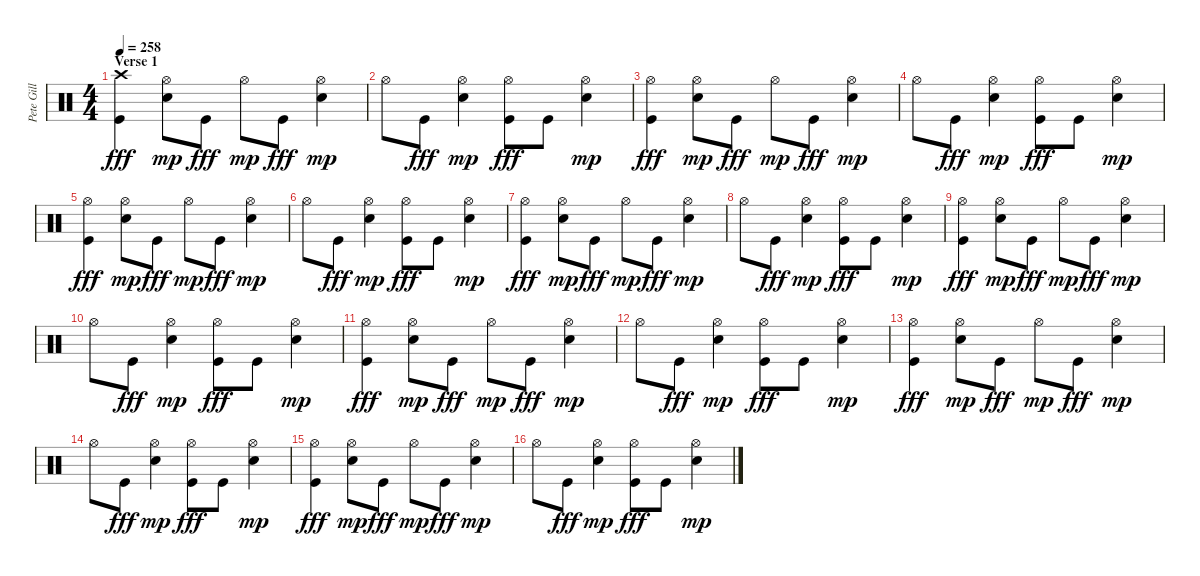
\track ("Pete Gill" "Pete Gill") {instrument percussion}
\staff {score}
\articulation defaults
\ts (4 4)
\section ("" "Verse 1")
\tempo 258
\clef neutral
\ks c
("Crash high (hit)" "Kick (hit)").4{dy fff} ("Hi-Hat (open)" "Electric Snare (hit)").8{dy mp} "Kick (hit)".8{dy fff} "Hi-Hat (open)".8{dy mp} "Kick (hit)".8{dy fff} ("Hi-Hat (open)" "Electric Snare (hit)").4{dy mp} |
"Hi-Hat (open)".8 "Kick (hit)".8{dy fff} ("Hi-Hat (open)" "Electric Snare (hit)").4{dy mp} ("Hi-Hat (open)" "Kick (hit)").8{dy fff} "Kick (hit)".8 ("Hi-Hat (open)" "Electric Snare (hit)").4{dy mp} |
("Hi-Hat (open)" "Kick (hit)").4{dy fff} ("Hi-Hat (open)" "Electric Snare (hit)").8{dy mp} "Kick (hit)".8{dy fff} "Hi-Hat (open)".8{dy mp} "Kick (hit)".8{dy fff} ("Hi-Hat (open)" "Electric Snare (hit)").4{dy mp} |
"Hi-Hat (open)".8 "Kick (hit)".8{dy fff} ("Hi-Hat (open)" "Electric Snare (hit)").4{dy mp} ("Hi-Hat (open)" "Kick (hit)").8{dy fff} "Kick (hit)".8 ("Hi-Hat (open)" "Electric Snare (hit)").4{dy mp} |
("Hi-Hat (open)" "Kick (hit)").4{dy fff} ("Hi-Hat (open)" "Electric Snare (hit)").8{dy mp} "Kick (hit)".8{dy fff} "Hi-Hat (open)".8{dy mp} "Kick (hit)".8{dy fff} ("Hi-Hat (open)" "Electric Snare (hit)").4{dy mp} |
"Hi-Hat (open)".8 "Kick (hit)".8{dy fff} ("Hi-Hat (open)" "Electric Snare (hit)").4{dy mp} ("Hi-Hat (open)" "Kick (hit)").8{dy fff} "Kick (hit)".8 ("Hi-Hat (open)" "Electric Snare (hit)").4{dy mp} |
("Hi-Hat (open)" "Kick (hit)").4{dy fff} ("Hi-Hat (open)" "Electric Snare (hit)").8{dy mp} "Kick (hit)".8{dy fff} "Hi-Hat (open)".8{dy mp} "Kick (hit)".8{dy fff} ("Hi-Hat (open)" "Electric Snare (hit)").4{dy mp} |
"Hi-Hat (open)".8 "Kick (hit)".8{dy fff} ("Hi-Hat (open)" "Electric Snare (hit)").4{dy mp} ("Hi-Hat (open)" "Kick (hit)").8{dy fff} "Kick (hit)".8 ("Hi-Hat (open)" "Electric Snare (hit)").4{dy mp} |
("Hi-Hat (open)" "Kick (hit)").4{dy fff} ("Hi-Hat (open)" "Electric Snare (hit)").8{dy mp} "Kick (hit)".8{dy fff} "Hi-Hat (open)".8{dy mp} "Kick (hit)".8{dy fff} ("Hi-Hat (open)" "Electric Snare (hit)").4{dy mp} |
"Hi-Hat (open)".8 "Kick (hit)".8{dy fff} ("Hi-Hat (open)" "Electric Snare (hit)").4{dy mp} ("Hi-Hat (open)" "Kick (hit)").8{dy fff} "Kick (hit)".8 ("Hi-Hat (open)" "Electric Snare (hit)").4{dy mp} |
("Hi-Hat (open)" "Kick (hit)").4{dy fff} ("Hi-Hat (open)" "Electric Snare (hit)").8{dy mp} "Kick (hit)".8{dy fff} "Hi-Hat (open)".8{dy mp} "Kick (hit)".8{dy fff} ("Hi-Hat (open)" "Electric Snare (hit)").4{dy mp} |
"Hi-Hat (open)".8 "Kick (hit)".8{dy fff} ("Hi-Hat (open)" "Electric Snare (hit)").4{dy mp} ("Hi-Hat (open)" "Kick (hit)").8{dy fff} "Kick (hit)".8 ("Hi-Hat (open)" "Electric Snare (hit)").4{dy mp} |
("Hi-Hat (open)" "Kick (hit)").4{dy fff} ("Hi-Hat (open)" "Electric Snare (hit)").8{dy mp} "Kick (hit)".8{dy fff} "Hi-Hat (open)".8{dy mp} "Kick (hit)".8{dy fff} ("Hi-Hat (open)" "Electric Snare (hit)").4{dy mp} |
"Hi-Hat (open)".8 "Kick (hit)".8{dy fff} ("Hi-Hat (open)" "Electric Snare (hit)").4{dy mp} ("Hi-Hat (open)" "Kick (hit)").8{dy fff} "Kick (hit)".8 ("Hi-Hat (open)" "Electric Snare (hit)").4{dy mp} |
("Hi-Hat (open)" "Kick (hit)").4{dy fff} ("Hi-Hat (open)" "Electric Snare (hit)").8{dy mp} "Kick (hit)".8{dy fff} "Hi-Hat (open)".8{dy mp} "Kick (hit)".8{dy fff} ("Hi-Hat (open)" "Electric Snare (hit)").4{dy mp} |
"Hi-Hat (open)".8 "Kick (hit)".8{dy fff} ("Hi-Hat (open)" "Electric Snare (hit)").4{dy mp} ("Hi-Hat (open)" "Kick (hit)").8{dy fff} "Kick (hit)".8 ("Hi-Hat (open)" "Electric Snare (hit)").4{dy mp}
